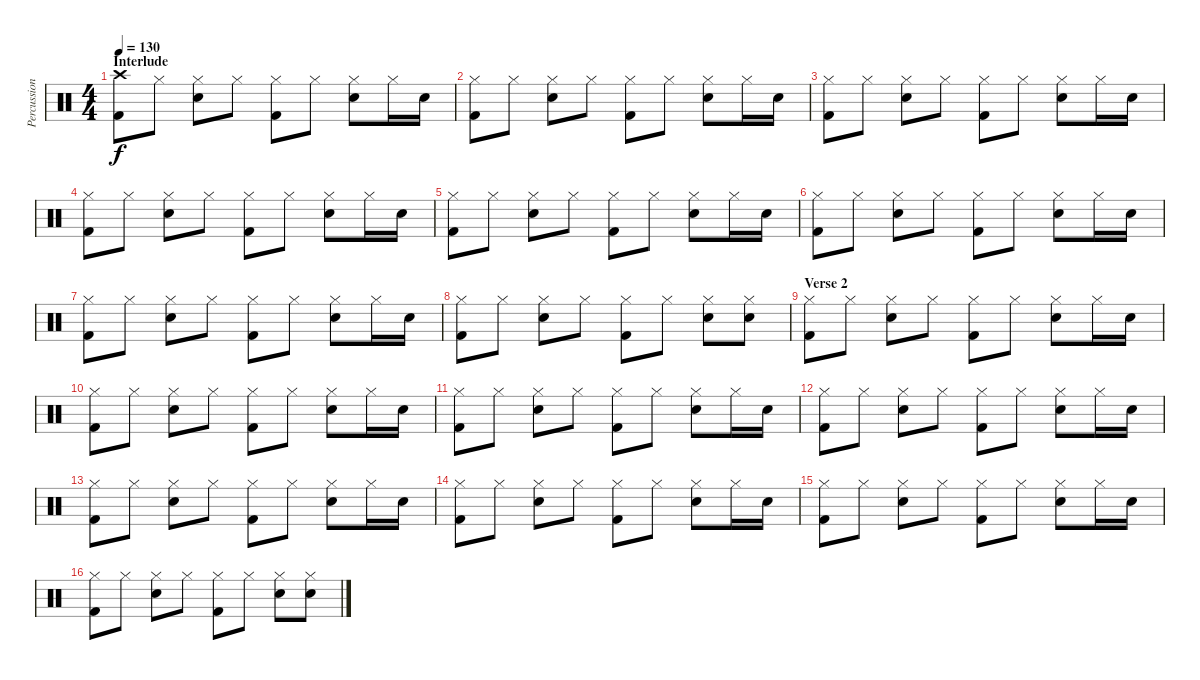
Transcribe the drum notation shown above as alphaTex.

\track ("Percussion" "Percussion") {instrument percussion}
\staff {score}
\articulation defaults
\ts (4 4)
\section ("" "Interlude")
\tempo 130
\clef neutral
\ks c
("Crash high (hit)" "Kick (hit) 2").8{dy f} "Hi-Hat (closed)".8 ("Hi-Hat (closed)" "Electric Snare (hit)").8 "Hi-Hat (closed)".8 ("Hi-Hat (closed)" "Kick (hit) 2").8 "Hi-Hat (closed)".8 ("Hi-Hat (closed)" "Electric Snare (hit)").8 "Hi-Hat (closed)".16 "Electric Snare (hit)".16 |
("Hi-Hat (closed)" "Kick (hit) 2").8 "Hi-Hat (closed)".8 ("Hi-Hat (closed)" "Electric Snare (hit)").8 "Hi-Hat (closed)".8 ("Hi-Hat (closed)" "Kick (hit) 2").8 "Hi-Hat (closed)".8 ("Hi-Hat (closed)" "Electric Snare (hit)").8 "Hi-Hat (closed)".16 "Electric Snare (hit)".16 |
("Hi-Hat (closed)" "Kick (hit) 2").8 "Hi-Hat (closed)".8 ("Hi-Hat (closed)" "Electric Snare (hit)").8 "Hi-Hat (closed)".8 ("Hi-Hat (closed)" "Kick (hit) 2").8 "Hi-Hat (closed)".8 ("Hi-Hat (closed)" "Electric Snare (hit)").8 "Hi-Hat (closed)".16 "Electric Snare (hit)".16 |
("Hi-Hat (closed)" "Kick (hit) 2").8 "Hi-Hat (closed)".8 ("Hi-Hat (closed)" "Electric Snare (hit)").8 "Hi-Hat (closed)".8 ("Hi-Hat (closed)" "Kick (hit) 2").8 "Hi-Hat (closed)".8 ("Hi-Hat (closed)" "Electric Snare (hit)").8 "Hi-Hat (closed)".16 "Electric Snare (hit)".16 |
("Hi-Hat (closed)" "Kick (hit) 2").8 "Hi-Hat (closed)".8 ("Hi-Hat (closed)" "Electric Snare (hit)").8 "Hi-Hat (closed)".8 ("Hi-Hat (closed)" "Kick (hit) 2").8 "Hi-Hat (closed)".8 ("Hi-Hat (closed)" "Electric Snare (hit)").8 "Hi-Hat (closed)".16 "Electric Snare (hit)".16 |
("Hi-Hat (closed)" "Kick (hit) 2").8 "Hi-Hat (closed)".8 ("Hi-Hat (closed)" "Electric Snare (hit)").8 "Hi-Hat (closed)".8 ("Hi-Hat (closed)" "Kick (hit) 2").8 "Hi-Hat (closed)".8 ("Hi-Hat (closed)" "Electric Snare (hit)").8 "Hi-Hat (closed)".16 "Electric Snare (hit)".16 |
("Hi-Hat (closed)" "Kick (hit) 2").8 "Hi-Hat (closed)".8 ("Hi-Hat (closed)" "Electric Snare (hit)").8 "Hi-Hat (closed)".8 ("Hi-Hat (closed)" "Kick (hit) 2").8 "Hi-Hat (closed)".8 ("Hi-Hat (closed)" "Electric Snare (hit)").8 "Hi-Hat (closed)".16 "Electric Snare (hit)".16 |
("Hi-Hat (closed)" "Kick (hit) 2").8 "Hi-Hat (closed)".8 ("Hi-Hat (closed)" "Electric Snare (hit)").8 "Hi-Hat (closed)".8 ("Hi-Hat (closed)" "Kick (hit) 2").8 "Hi-Hat (closed)".8 ("Hi-Hat (closed)" "Electric Snare (hit)").8 ("Hi-Hat (closed)" "Electric Snare (hit)").8 |
\section ("" "Verse 2")
("Hi-Hat (closed)" "Kick (hit) 2").8 "Hi-Hat (closed)".8 ("Hi-Hat (closed)" "Electric Snare (hit)").8 "Hi-Hat (closed)".8 ("Hi-Hat (closed)" "Kick (hit) 2").8 "Hi-Hat (closed)".8 ("Hi-Hat (closed)" "Electric Snare (hit)").8 "Hi-Hat (closed)".16 "Electric Snare (hit)".16 |
("Hi-Hat (closed)" "Kick (hit) 2").8 "Hi-Hat (closed)".8 ("Hi-Hat (closed)" "Electric Snare (hit)").8 "Hi-Hat (closed)".8 ("Hi-Hat (closed)" "Kick (hit) 2").8 "Hi-Hat (closed)".8 ("Hi-Hat (closed)" "Electric Snare (hit)").8 "Hi-Hat (closed)".16 "Electric Snare (hit)".16 |
("Hi-Hat (closed)" "Kick (hit) 2").8 "Hi-Hat (closed)".8 ("Hi-Hat (closed)" "Electric Snare (hit)").8 "Hi-Hat (closed)".8 ("Hi-Hat (closed)" "Kick (hit) 2").8 "Hi-Hat (closed)".8 ("Hi-Hat (closed)" "Electric Snare (hit)").8 "Hi-Hat (closed)".16 "Electric Snare (hit)".16 |
("Hi-Hat (closed)" "Kick (hit) 2").8 "Hi-Hat (closed)".8 ("Hi-Hat (closed)" "Electric Snare (hit)").8 "Hi-Hat (closed)".8 ("Hi-Hat (closed)" "Kick (hit) 2").8 "Hi-Hat (closed)".8 ("Hi-Hat (closed)" "Electric Snare (hit)").8 "Hi-Hat (closed)".16 "Electric Snare (hit)".16 |
("Hi-Hat (closed)" "Kick (hit) 2").8 "Hi-Hat (closed)".8 ("Hi-Hat (closed)" "Electric Snare (hit)").8 "Hi-Hat (closed)".8 ("Hi-Hat (closed)" "Kick (hit) 2").8 "Hi-Hat (closed)".8 ("Hi-Hat (closed)" "Electric Snare (hit)").8 "Hi-Hat (closed)".16 "Electric Snare (hit)".16 |
("Hi-Hat (closed)" "Kick (hit) 2").8 "Hi-Hat (closed)".8 ("Hi-Hat (closed)" "Electric Snare (hit)").8 "Hi-Hat (closed)".8 ("Hi-Hat (closed)" "Kick (hit) 2").8 "Hi-Hat (closed)".8 ("Hi-Hat (closed)" "Electric Snare (hit)").8 "Hi-Hat (closed)".16 "Electric Snare (hit)".16 |
("Hi-Hat (closed)" "Kick (hit) 2").8 "Hi-Hat (closed)".8 ("Hi-Hat (closed)" "Electric Snare (hit)").8 "Hi-Hat (closed)".8 ("Hi-Hat (closed)" "Kick (hit) 2").8 "Hi-Hat (closed)".8 ("Hi-Hat (closed)" "Electric Snare (hit)").8 "Hi-Hat (closed)".16 "Electric Snare (hit)".16 |
("Hi-Hat (closed)" "Kick (hit) 2").8 "Hi-Hat (closed)".8 ("Hi-Hat (closed)" "Electric Snare (hit)").8 "Hi-Hat (closed)".8 ("Hi-Hat (closed)" "Kick (hit) 2").8 "Hi-Hat (closed)".8 ("Hi-Hat (closed)" "Electric Snare (hit)").8 ("Hi-Hat (closed)" "Electric Snare (hit)").8
